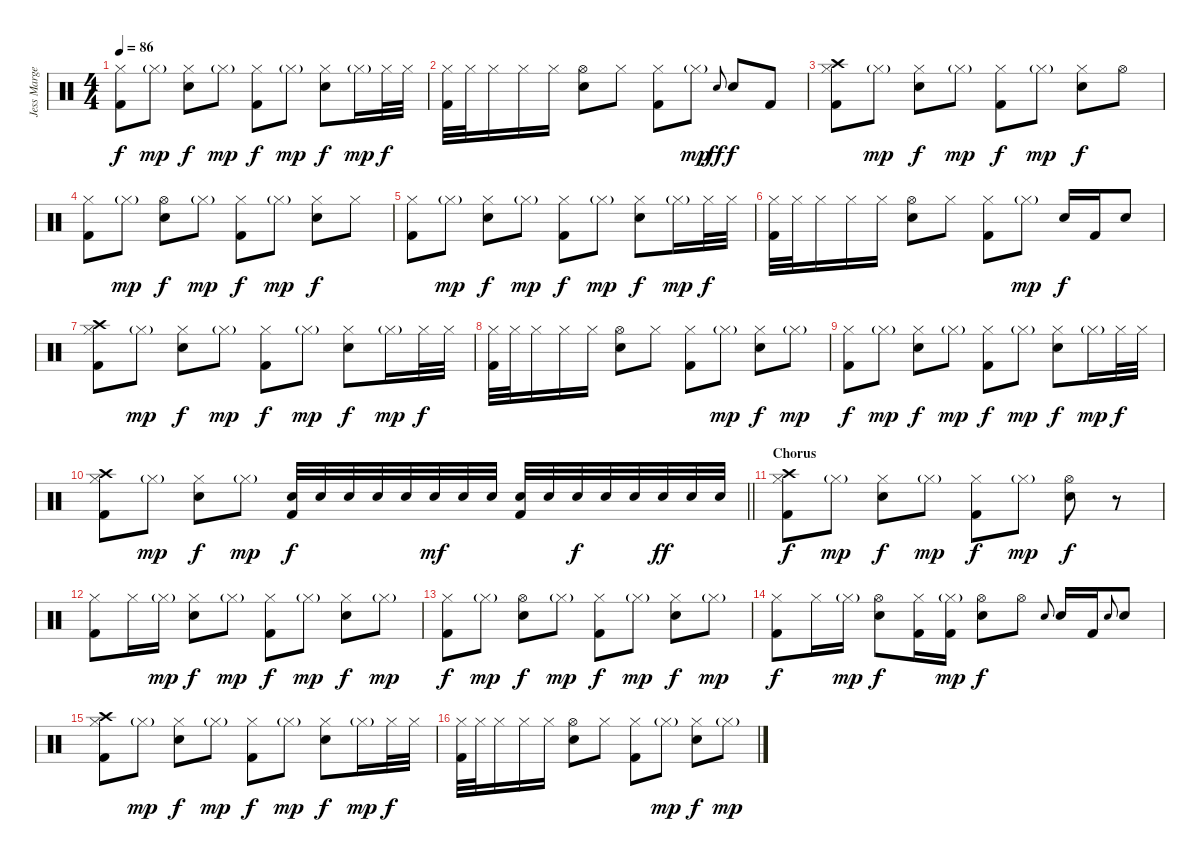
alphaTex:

\track ("Jess Margera (Drums)" "Jess Marge") {instrument percussion}
\staff {score}
\articulation defaults
\ts (4 4)
\tempo 86
\clef neutral
\ks c
("Hi-Hat (closed)" "Kick (hit) 2").8{dy f} "Hi-Hat (closed)"{g}.8{dy mp} ("Hi-Hat (closed)" "Snare (hit) 2").8{dy f} "Hi-Hat (closed)"{g}.8{dy mp} ("Hi-Hat (closed)" "Kick (hit) 2").8{dy f} "Hi-Hat (closed)"{g}.8{dy mp} ("Hi-Hat (closed)" "Snare (hit) 2").8{dy f} "Hi-Hat (closed)"{g}.16{dy mp} "Hi-Hat (closed)".32{dy f} "Hi-Hat (closed)".32 |
("Hi-Hat (closed)" "Kick (hit) 2").32 "Hi-Hat (closed)".32 "Hi-Hat (closed)".16 "Hi-Hat (closed)".16 "Hi-Hat (closed)".16 ("Hi-Hat (open)" "Snare (hit) 2").8 "Hi-Hat (closed)".8 ("Hi-Hat (closed)" "Kick (hit) 2").8 "Hi-Hat (closed)"{g}.8{dy mp} "Snare (hit) 2".8{gr onbeat dy ff} "Snare (hit) 2".8{dy f} "Kick (hit) 2".8 |
("Crash high (hit)" "Hi-Hat (closed)" "Kick (hit) 2").8 "Hi-Hat (closed)"{g}.8{dy mp} ("Hi-Hat (closed)" "Snare (hit) 2").8{dy f} "Hi-Hat (closed)"{g}.8{dy mp} ("Hi-Hat (closed)" "Kick (hit) 2").8{dy f} "Hi-Hat (closed)"{g}.8{dy mp} ("Hi-Hat (closed)" "Snare (hit) 2").8{dy f} "Hi-Hat (open)".8 |
("Hi-Hat (closed)" "Kick (hit) 2").8 "Hi-Hat (closed)"{g}.8{dy mp} ("Hi-Hat (open)" "Snare (hit) 2").8{dy f} "Hi-Hat (closed)"{g}.8{dy mp} ("Hi-Hat (closed)" "Kick (hit) 2").8{dy f} "Hi-Hat (closed)"{g}.8{dy mp} ("Hi-Hat (closed)" "Snare (hit) 2").8{dy f} "Hi-Hat (closed)".8 |
("Hi-Hat (closed)" "Kick (hit) 2").8 "Hi-Hat (closed)"{g}.8{dy mp} ("Hi-Hat (closed)" "Snare (hit) 2").8{dy f} "Hi-Hat (closed)"{g}.8{dy mp} ("Hi-Hat (closed)" "Kick (hit) 2").8{dy f} "Hi-Hat (closed)"{g}.8{dy mp} ("Hi-Hat (closed)" "Snare (hit) 2").8{dy f} "Hi-Hat (closed)"{g}.16{dy mp} "Hi-Hat (closed)".32{dy f} "Hi-Hat (closed)".32 |
("Hi-Hat (closed)" "Kick (hit) 2").32 "Hi-Hat (closed)".32 "Hi-Hat (closed)".16 "Hi-Hat (closed)".16 "Hi-Hat (closed)".16 ("Hi-Hat (open)" "Snare (hit) 2").8 "Hi-Hat (closed)".8 ("Hi-Hat (closed)" "Kick (hit) 2").8 "Hi-Hat (closed)"{g}.8{dy mp} "Snare (hit) 2".16{dy f} "Kick (hit) 2".16 "Snare (hit) 2".8 |
("Crash high (hit)" "Hi-Hat (closed)" "Kick (hit) 2").8 "Hi-Hat (closed)"{g}.8{dy mp} ("Hi-Hat (closed)" "Snare (hit) 2").8{dy f} "Hi-Hat (closed)"{g}.8{dy mp} ("Hi-Hat (closed)" "Kick (hit) 2").8{dy f} "Hi-Hat (closed)"{g}.8{dy mp} ("Hi-Hat (closed)" "Snare (hit) 2").8{dy f} "Hi-Hat (closed)"{g}.16{dy mp} "Hi-Hat (closed)".32{dy f} "Hi-Hat (closed)".32 |
("Hi-Hat (closed)" "Kick (hit) 2").32 "Hi-Hat (closed)".32 "Hi-Hat (closed)".16 "Hi-Hat (closed)".16 "Hi-Hat (closed)".16 ("Hi-Hat (open)" "Snare (hit) 2").8 "Hi-Hat (closed)".8 ("Hi-Hat (closed)" "Kick (hit) 2").8 "Hi-Hat (closed)"{g}.8{dy mp} ("Hi-Hat (closed)" "Snare (hit) 2").8{dy f} "Hi-Hat (closed)"{g}.8{dy mp} |
("Hi-Hat (closed)" "Kick (hit) 2").8{dy f} "Hi-Hat (closed)"{g}.8{dy mp} ("Hi-Hat (closed)" "Snare (hit) 2").8{dy f} "Hi-Hat (closed)"{g}.8{dy mp} ("Hi-Hat (closed)" "Kick (hit) 2").8{dy f} "Hi-Hat (closed)"{g}.8{dy mp} ("Hi-Hat (closed)" "Snare (hit) 2").8{dy f} "Hi-Hat (closed)"{g}.16{dy mp} "Hi-Hat (closed)".32{dy f} "Hi-Hat (closed)".32 |
\barLineRight lightlight
("Crash high (hit)" "Hi-Hat (closed)" "Kick (hit) 2").8 "Hi-Hat (closed)"{g}.8{dy mp} ("Hi-Hat (closed)" "Snare (hit) 2").8{dy f} "Hi-Hat (closed)"{g}.8{dy mp} ("Snare (hit) 2" "Kick (hit) 2").32{dy f} "Snare (hit) 2".32 "Snare (hit) 2".32 "Snare (hit) 2".32 "Snare (hit) 2".32 "Snare (hit) 2".32{dy mf} "Snare (hit) 2".32 "Snare (hit) 2".32 ("Snare (hit) 2" "Kick (hit) 2").32 "Snare (hit) 2".32 "Snare (hit) 2".32{dy f} "Snare (hit) 2".32 "Snare (hit) 2".32 "Snare (hit) 2".32{dy ff} "Snare (hit) 2".32 "Snare (hit) 2".32 |
\section ("" "Chorus")
("Crash high (hit)" "Hi-Hat (closed)" "Kick (hit) 2").8{dy f} "Hi-Hat (closed)"{g}.8{dy mp} ("Hi-Hat (closed)" "Snare (hit) 2").8{dy f} "Hi-Hat (closed)"{g}.8{dy mp} ("Hi-Hat (closed)" "Kick (hit) 2").8{dy f} "Hi-Hat (closed)"{g}.8{dy mp} ("Hi-Hat (open)" "Snare (hit) 2").8{dy f} r.8 |
("Hi-Hat (closed)" "Kick (hit) 2").8 "Hi-Hat (closed)".16 "Hi-Hat (closed)"{g}.16{dy mp} ("Hi-Hat (closed)" "Snare (hit) 2").8{dy f} "Hi-Hat (closed)"{g}.8{dy mp} ("Hi-Hat (closed)" "Kick (hit) 2").8{dy f} "Hi-Hat (closed)"{g}.8{dy mp} ("Hi-Hat (closed)" "Snare (hit) 2").8{dy f} "Hi-Hat (closed)"{g}.8{dy mp} |
("Hi-Hat (closed)" "Kick (hit) 2").8{dy f} "Hi-Hat (closed)"{g}.8{dy mp} ("Hi-Hat (open)" "Snare (hit) 2").8{dy f} "Hi-Hat (closed)"{g}.8{dy mp} ("Hi-Hat (closed)" "Kick (hit) 2").8{dy f} "Hi-Hat (closed)"{g}.8{dy mp} ("Hi-Hat (closed)" "Snare (hit) 2").8{dy f} "Hi-Hat (closed)"{g}.8{dy mp} |
("Hi-Hat (closed)" "Kick (hit) 2").8{dy f} "Hi-Hat (closed)".16 "Hi-Hat (closed)"{g}.16{dy mp} ("Hi-Hat (open)" "Snare (hit) 2").8{dy f} ("Hi-Hat (closed)" "Kick (hit) 2").16 ("Hi-Hat (closed)"{g} "Kick (hit) 2").16{dy mp} ("Hi-Hat (open)" "Snare (hit) 2").8{dy f} "Hi-Hat (open)".8 "Snare (hit) 2".8{gr onbeat} "Snare (hit) 2".16 "Kick (hit) 2".16 "Snare (hit) 2".8{gr onbeat} "Snare (hit) 2".8 |
("Crash high (hit)" "Hi-Hat (closed)" "Kick (hit) 2").8 "Hi-Hat (closed)"{g}.8{dy mp} ("Hi-Hat (closed)" "Snare (hit) 2").8{dy f} "Hi-Hat (closed)"{g}.8{dy mp} ("Hi-Hat (closed)" "Kick (hit) 2").8{dy f} "Hi-Hat (closed)"{g}.8{dy mp} ("Hi-Hat (closed)" "Snare (hit) 2").8{dy f} "Hi-Hat (closed)"{g}.16{dy mp} "Hi-Hat (closed)".32{dy f} "Hi-Hat (closed)".32 |
("Hi-Hat (closed)" "Kick (hit) 2").32 "Hi-Hat (closed)".32 "Hi-Hat (closed)".16 "Hi-Hat (closed)".16 "Hi-Hat (closed)".16 ("Hi-Hat (open)" "Snare (hit) 2").8 "Hi-Hat (closed)".8 ("Hi-Hat (closed)" "Kick (hit) 2").8 "Hi-Hat (closed)"{g}.8{dy mp} ("Hi-Hat (closed)" "Snare (hit) 2").8{dy f} "Hi-Hat (closed)"{g}.8{dy mp}
